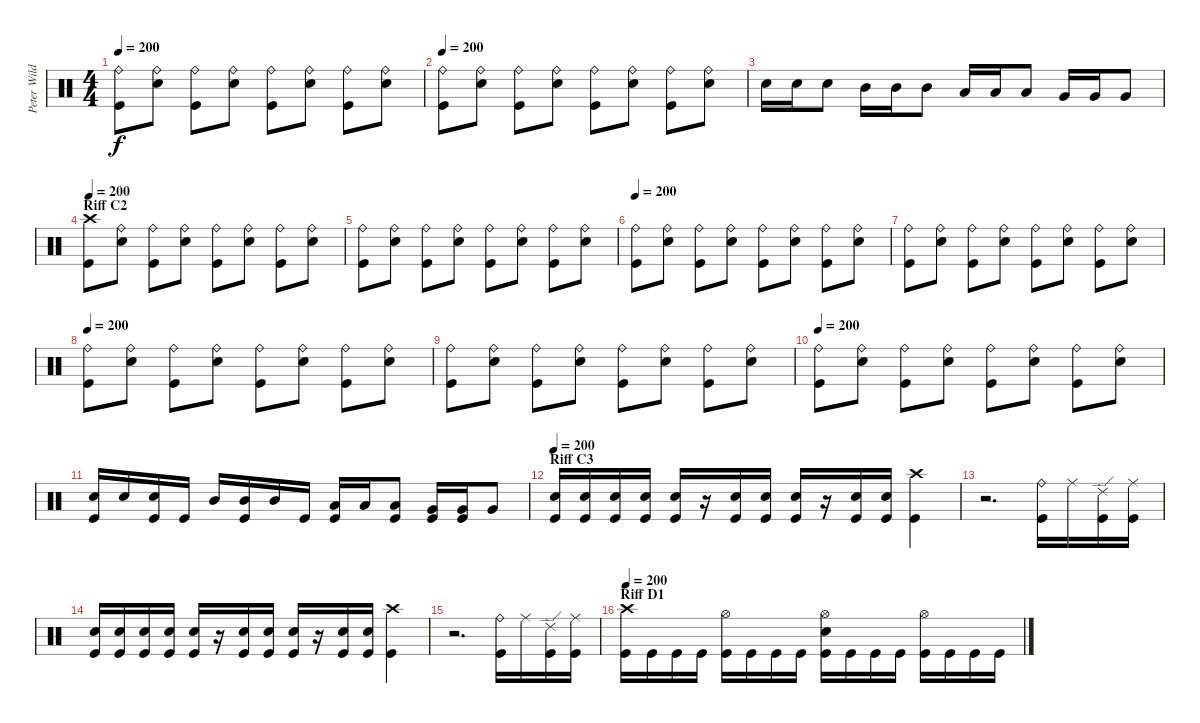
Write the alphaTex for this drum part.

\track ("Peter Wildoer " "Peter Wild") {instrument percussion}
\staff {score}
\articulation defaults
\ts (4 4)
\tempo 200
\clef neutral
\ks c
("Ride (bell)" "Kick (hit)").8{dy f} ("Ride (bell)" "Electric Snare (hit)").8 ("Ride (bell)" "Kick (hit)").8 ("Ride (bell)" "Electric Snare (hit)").8 ("Ride (bell)" "Kick (hit)").8 ("Ride (bell)" "Electric Snare (hit)").8 ("Ride (bell)" "Kick (hit)").8 ("Ride (bell)" "Electric Snare (hit)").8 |
\tempo 200
("Ride (bell)" "Kick (hit)").8 ("Ride (bell)" "Electric Snare (hit)").8 ("Ride (bell)" "Kick (hit)").8 ("Ride (bell)" "Electric Snare (hit)").8 ("Ride (bell)" "Kick (hit)").8 ("Ride (bell)" "Electric Snare (hit)").8 ("Ride (bell)" "Kick (hit)").8 ("Ride (bell)" "Electric Snare (hit)").8 |
"Electric Snare (hit)".16 "Electric Snare (hit)".16 "Electric Snare (hit)".8 "Mid Tom (hit)".16 "Mid Tom (hit)".16 "Mid Tom (hit)".8 "Low Tom (hit)".16 "Low Tom (hit)".16 "Low Tom (hit)".8 "Very Low Tom (hit)".16 "Very Low Tom (hit)".16 "Very Low Tom (hit)".8 |
\section ("" "Riff C2")
\tempo 200
("Crash high (hit)" "Kick (hit)").8 ("Ride (bell)" "Electric Snare (hit)").8 ("Ride (bell)" "Kick (hit)").8 ("Ride (bell)" "Electric Snare (hit)").8 ("Ride (bell)" "Kick (hit)").8 ("Ride (bell)" "Electric Snare (hit)").8 ("Ride (bell)" "Kick (hit)").8 ("Ride (bell)" "Electric Snare (hit)").8 |
("Ride (bell)" "Kick (hit)").8 ("Ride (bell)" "Electric Snare (hit)").8 ("Ride (bell)" "Kick (hit)").8 ("Ride (bell)" "Electric Snare (hit)").8 ("Ride (bell)" "Kick (hit)").8 ("Ride (bell)" "Electric Snare (hit)").8 ("Ride (bell)" "Kick (hit)").8 ("Ride (bell)" "Electric Snare (hit)").8 |
\tempo 200
("Ride (bell)" "Kick (hit)").8 ("Ride (bell)" "Electric Snare (hit)").8 ("Ride (bell)" "Kick (hit)").8 ("Ride (bell)" "Electric Snare (hit)").8 ("Ride (bell)" "Kick (hit)").8 ("Ride (bell)" "Electric Snare (hit)").8 ("Ride (bell)" "Kick (hit)").8 ("Ride (bell)" "Electric Snare (hit)").8 |
("Ride (bell)" "Kick (hit)").8 ("Ride (bell)" "Electric Snare (hit)").8 ("Ride (bell)" "Kick (hit)").8 ("Ride (bell)" "Electric Snare (hit)").8 ("Ride (bell)" "Kick (hit)").8 ("Ride (bell)" "Electric Snare (hit)").8 ("Ride (bell)" "Kick (hit)").8 ("Ride (bell)" "Electric Snare (hit)").8 |
\tempo 200
("Ride (bell)" "Kick (hit)").8 ("Ride (bell)" "Electric Snare (hit)").8 ("Ride (bell)" "Kick (hit)").8 ("Ride (bell)" "Electric Snare (hit)").8 ("Ride (bell)" "Kick (hit)").8 ("Ride (bell)" "Electric Snare (hit)").8 ("Ride (bell)" "Kick (hit)").8 ("Ride (bell)" "Electric Snare (hit)").8 |
("Ride (bell)" "Kick (hit)").8 ("Ride (bell)" "Electric Snare (hit)").8 ("Ride (bell)" "Kick (hit)").8 ("Ride (bell)" "Electric Snare (hit)").8 ("Ride (bell)" "Kick (hit)").8 ("Ride (bell)" "Electric Snare (hit)").8 ("Ride (bell)" "Kick (hit)").8 ("Ride (bell)" "Electric Snare (hit)").8 |
\tempo 200
("Ride (bell)" "Kick (hit)").8 ("Ride (bell)" "Electric Snare (hit)").8 ("Ride (bell)" "Kick (hit)").8 ("Ride (bell)" "Electric Snare (hit)").8 ("Ride (bell)" "Kick (hit)").8 ("Ride (bell)" "Electric Snare (hit)").8 ("Ride (bell)" "Kick (hit)").8 ("Ride (bell)" "Electric Snare (hit)").8 |
("Electric Snare (hit)" "Kick (hit)").16 "Electric Snare (hit)".16 ("Electric Snare (hit)" "Kick (hit)").16 "Kick (hit)".16 "Mid Tom (hit)".16 ("Mid Tom (hit)" "Kick (hit)").16 "Mid Tom (hit)".16 "Kick (hit)".16 ("Low Tom (hit)" "Kick (hit)").16 "Low Tom (hit)".16 ("Low Tom (hit)" "Kick (hit)").8 ("Very Low Tom (hit)" "Kick (hit)").16 ("Very Low Tom (hit)" "Kick (hit)").16 "Very Low Tom (hit)".8 |
\section ("" "Riff C3")
\tempo 200
("Electric Snare (hit)" "Kick (hit)").16 ("Electric Snare (hit)" "Kick (hit)").16 ("Electric Snare (hit)" "Kick (hit)").16 ("Electric Snare (hit)" "Kick (hit)").16 ("Electric Snare (hit)" "Kick (hit)").16 r.16 ("Electric Snare (hit)" "Kick (hit)").16 ("Electric Snare (hit)" "Kick (hit)").16 ("Electric Snare (hit)" "Kick (hit)").16 r.16 ("Electric Snare (hit)" "Kick (hit)").16 ("Electric Snare (hit)" "Kick (hit)").16 ("Crash high (hit)" "Kick (hit)").4 |
r.2{d} ("Ride (bell)" "Kick (hit)").16 "Ride (middle)".16 ("Ride (edge) 2" "Kick (hit)").16 ("Ride (middle)" "Kick (hit)").16 |
("Electric Snare (hit)" "Kick (hit)").16 ("Electric Snare (hit)" "Kick (hit)").16 ("Electric Snare (hit)" "Kick (hit)").16 ("Electric Snare (hit)" "Kick (hit)").16 ("Electric Snare (hit)" "Kick (hit)").16 r.16 ("Electric Snare (hit)" "Kick (hit)").16 ("Electric Snare (hit)" "Kick (hit)").16 ("Electric Snare (hit)" "Kick (hit)").16 r.16 ("Electric Snare (hit)" "Kick (hit)").16 ("Electric Snare (hit)" "Kick (hit)").16 ("Crash high (hit)" "Kick (hit)").4 |
r.2{d} ("Ride (bell)" "Kick (hit)").16 "Ride (middle)".16 ("Ride (edge) 2" "Kick (hit)").16 ("Ride (middle)" "Kick (hit)").16 |
\section ("" "Riff D1")
\tempo 200
("Crash high (hit)" "Kick (hit)").16 "Kick (hit)".16 "Kick (hit)".16 "Kick (hit)".16 ("Hi-Hat (open)" "Kick (hit)").16 "Kick (hit)".16 "Kick (hit)".16 "Kick (hit)".16 ("Hi-Hat (open)" "Electric Snare (hit)" "Kick (hit)").16 "Kick (hit)".16 "Kick (hit)".16 "Kick (hit)".16 ("Hi-Hat (open)" "Kick (hit)").16 "Kick (hit)".16 "Kick (hit)".16 "Kick (hit)".16
